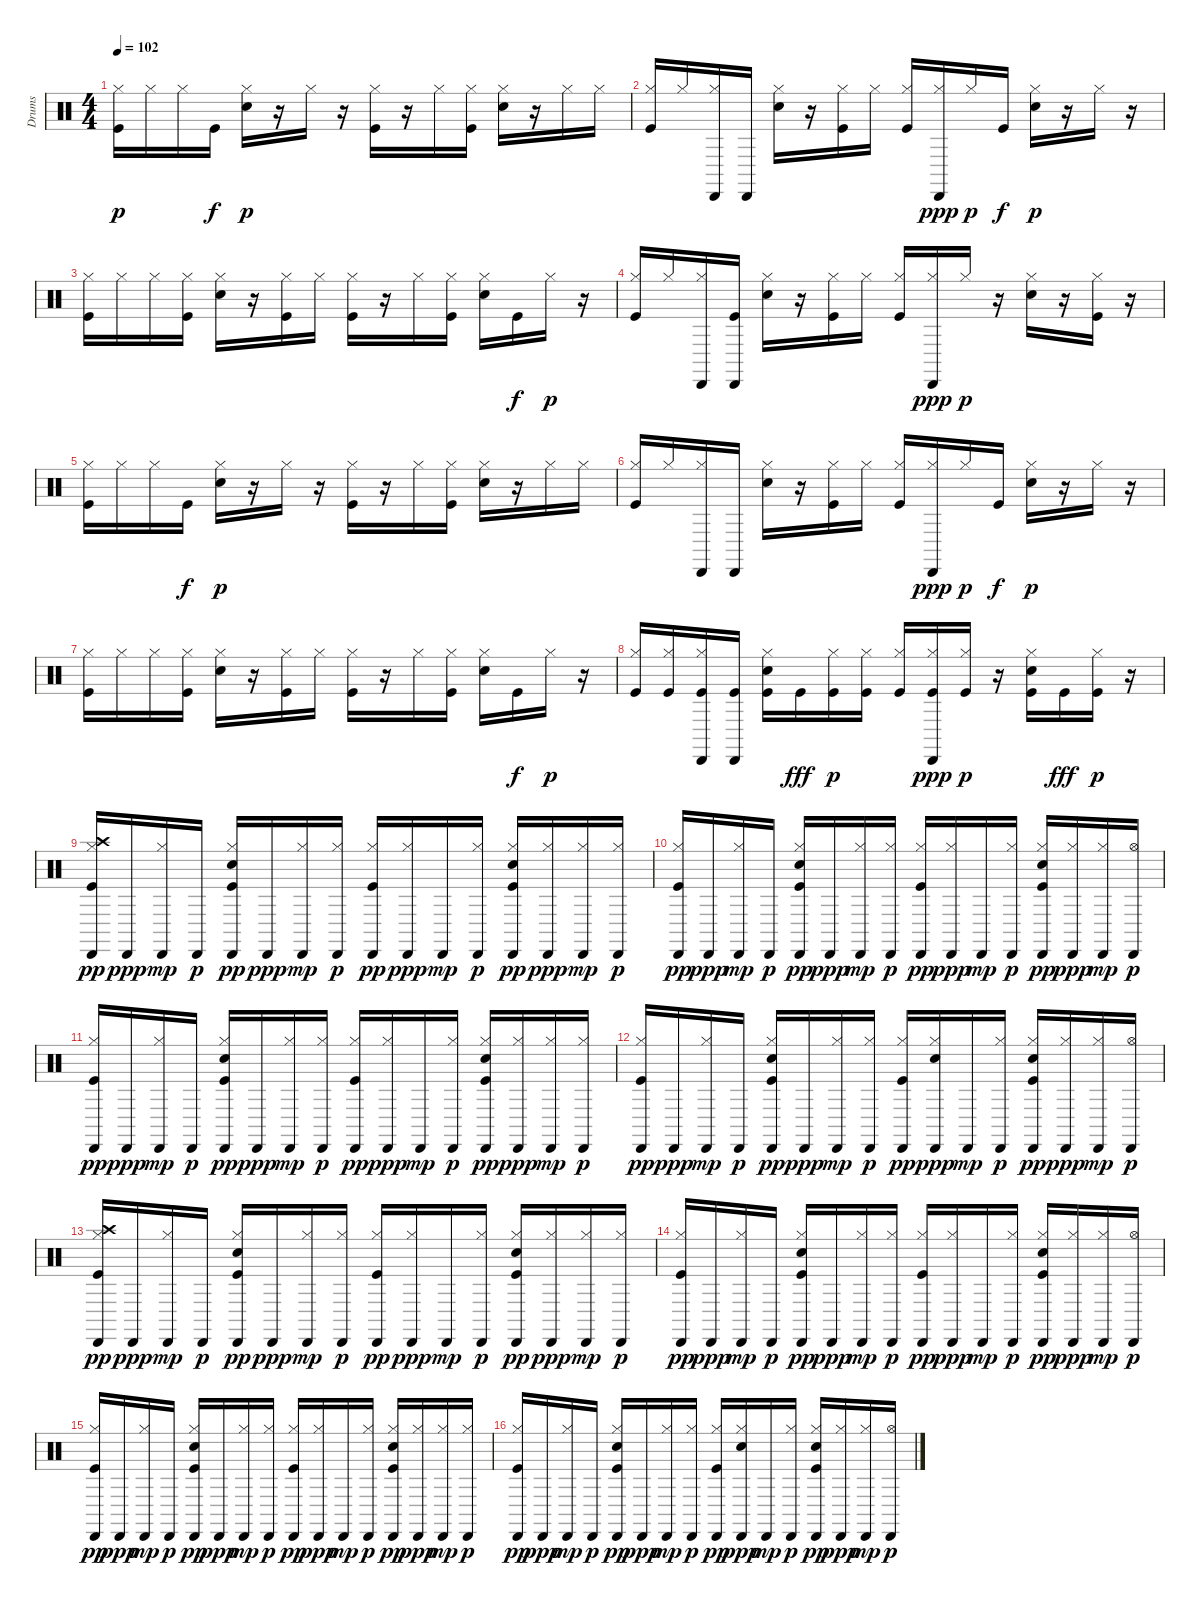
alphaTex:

\track ("Drums" "Drums") {instrument percussion}
\staff {score}
\articulation defaults
\ts (4 4)
\tempo 102
\clef neutral
\ks c
("Kick (hit)" "Hi-Hat (closed)").16{dy p} "Hi-Hat (closed)".16 "Hi-Hat (closed)".16 "Kick (hit)".16{dy f} ("Snare (hit) 2" "Hi-Hat (closed)").16{dy p} r.16 "Hi-Hat (closed)".16 r.16 ("Kick (hit)" "Hi-Hat (closed)").16 r.16 "Hi-Hat (closed)".16 ("Kick (hit)" "Hi-Hat (closed)").16 ("Snare (hit) 2" "Hi-Hat (closed)").16 r.16 "Hi-Hat (closed)".16 "Hi-Hat (closed)".16 |
("Kick (hit)" "Hi-Hat (closed)").16 "Hi-Hat (closed)".16 ("Hi-Hat (closed)" "Cabasa (hit)").16 "Cabasa (hit)".16 ("Snare (hit) 2" "Hi-Hat (closed)").16 r.16 ("Kick (hit)" "Hi-Hat (closed)").16 "Hi-Hat (closed)".16 ("Kick (hit)" "Hi-Hat (closed)").16 ("Hi-Hat (closed)" "Cabasa (hit)").16{dy ppp} "Hi-Hat (closed)".16{dy p} "Kick (hit)".16{dy f} ("Snare (hit) 2" "Hi-Hat (closed)").16{dy p} r.16 "Hi-Hat (closed)".16 r.16 |
("Kick (hit)" "Hi-Hat (closed)").16 "Hi-Hat (closed)".16 "Hi-Hat (closed)".16 ("Kick (hit)" "Hi-Hat (closed)").16 ("Snare (hit) 2" "Hi-Hat (closed)").16 r.16 ("Kick (hit)" "Hi-Hat (closed)").16 "Hi-Hat (closed)".16 ("Kick (hit)" "Hi-Hat (closed)").16 r.16 "Hi-Hat (closed)".16 ("Kick (hit)" "Hi-Hat (closed)").16 ("Snare (hit) 2" "Hi-Hat (closed)").16 "Kick (hit)".16{dy f} "Hi-Hat (closed)".16{dy p} r.16 |
("Kick (hit)" "Hi-Hat (closed)").16 "Hi-Hat (closed)".16 ("Hi-Hat (closed)" "Cabasa (hit)").16 ("Kick (hit)" "Cabasa (hit)").16 ("Snare (hit) 2" "Hi-Hat (closed)").16 r.16 ("Kick (hit)" "Hi-Hat (closed)").16 "Hi-Hat (closed)".16 ("Kick (hit)" "Hi-Hat (closed)").16 ("Hi-Hat (closed)" "Cabasa (hit)").16{dy ppp} "Hi-Hat (closed)".16{dy p} r.16 ("Snare (hit) 2" "Hi-Hat (closed)").16 r.16 ("Kick (hit)" "Hi-Hat (closed)").16 r.16 |
("Kick (hit)" "Hi-Hat (closed)").16 "Hi-Hat (closed)".16 "Hi-Hat (closed)".16 "Kick (hit)".16{dy f} ("Snare (hit) 2" "Hi-Hat (closed)").16{dy p} r.16 "Hi-Hat (closed)".16 r.16 ("Kick (hit)" "Hi-Hat (closed)").16 r.16 "Hi-Hat (closed)".16 ("Kick (hit)" "Hi-Hat (closed)").16 ("Snare (hit) 2" "Hi-Hat (closed)").16 r.16 "Hi-Hat (closed)".16 "Hi-Hat (closed)".16 |
("Kick (hit)" "Hi-Hat (closed)").16 "Hi-Hat (closed)".16 ("Hi-Hat (closed)" "Cabasa (hit)").16 "Cabasa (hit)".16 ("Snare (hit) 2" "Hi-Hat (closed)").16 r.16 ("Kick (hit)" "Hi-Hat (closed)").16 "Hi-Hat (closed)".16 ("Kick (hit)" "Hi-Hat (closed)").16 ("Hi-Hat (closed)" "Cabasa (hit)").16{dy ppp} "Hi-Hat (closed)".16{dy p} "Kick (hit)".16{dy f} ("Snare (hit) 2" "Hi-Hat (closed)").16{dy p} r.16 "Hi-Hat (closed)".16 r.16 |
("Kick (hit)" "Hi-Hat (closed)").16 "Hi-Hat (closed)".16 "Hi-Hat (closed)".16 ("Kick (hit)" "Hi-Hat (closed)").16 ("Snare (hit) 2" "Hi-Hat (closed)").16 r.16 ("Kick (hit)" "Hi-Hat (closed)").16 "Hi-Hat (closed)".16 ("Kick (hit)" "Hi-Hat (closed)").16 r.16 "Hi-Hat (closed)".16 ("Kick (hit)" "Hi-Hat (closed)").16 ("Snare (hit) 2" "Hi-Hat (closed)").16 "Kick (hit)".16{dy f} "Hi-Hat (closed)".16{dy p} r.16 |
("Kick (hit)" "Hi-Hat (closed)").16 ("Kick (hit)" "Hi-Hat (closed)").16 ("Kick (hit)" "Hi-Hat (closed)" "Cabasa (hit)").16 ("Kick (hit)" "Cabasa (hit)").16 ("Kick (hit)" "Snare (hit) 2" "Hi-Hat (closed)").16 "Kick (hit)".16{dy fff} ("Kick (hit)" "Hi-Hat (closed)").16{dy p} ("Kick (hit)" "Hi-Hat (closed)").16 ("Kick (hit)" "Hi-Hat (closed)").16 ("Kick (hit)" "Hi-Hat (closed)" "Cabasa (hit)").16{dy ppp} ("Kick (hit)" "Hi-Hat (closed)").16{dy p} r.16 ("Kick (hit)" "Snare (hit) 2" "Hi-Hat (closed)").16 "Kick (hit)".16{dy fff} ("Kick (hit)" "Hi-Hat (closed)").16{dy p} r.16 |
("Kick (hit)" "Hi-Hat (closed)" "Crash high (hit)" "Cabasa (hit)").16{dy pp} "Cabasa (hit)".16{dy ppp} ("Hi-Hat (closed)" "Cabasa (hit)").16{dy mp} "Cabasa (hit)".16{dy p} ("Kick (hit)" "Snare (hit) 2" "Hi-Hat (closed)" "Cabasa (hit)").16{dy pp} "Cabasa (hit)".16{dy ppp} ("Hi-Hat (closed)" "Cabasa (hit)").16{dy mp} ("Hi-Hat (closed)" "Cabasa (hit)").16{dy p} ("Kick (hit)" "Hi-Hat (closed)" "Cabasa (hit)").16{dy pp} ("Hi-Hat (closed)" "Cabasa (hit)").16{dy ppp} "Cabasa (hit)".16{dy mp} ("Hi-Hat (closed)" "Cabasa (hit)").16{dy p} ("Kick (hit)" "Snare (hit) 2" "Hi-Hat (closed)" "Cabasa (hit)").16{dy pp} ("Hi-Hat (closed)" "Cabasa (hit)").16{dy ppp} ("Hi-Hat (closed)" "Cabasa (hit)").16{dy mp} ("Hi-Hat (closed)" "Cabasa (hit)").16{dy p} |
("Kick (hit)" "Hi-Hat (closed)" "Cabasa (hit)").16{dy pp} "Cabasa (hit)".16{dy ppp} ("Hi-Hat (closed)" "Cabasa (hit)").16{dy mp} "Cabasa (hit)".16{dy p} ("Kick (hit)" "Snare (hit) 2" "Hi-Hat (closed)" "Cabasa (hit)").16{dy pp} "Cabasa (hit)".16{dy ppp} ("Hi-Hat (closed)" "Cabasa (hit)").16{dy mp} ("Hi-Hat (closed)" "Cabasa (hit)").16{dy p} ("Kick (hit)" "Hi-Hat (closed)" "Cabasa (hit)").16{dy pp} ("Hi-Hat (closed)" "Cabasa (hit)").16{dy ppp} "Cabasa (hit)".16{dy mp} ("Hi-Hat (closed)" "Cabasa (hit)").16{dy p} ("Kick (hit)" "Snare (hit) 2" "Hi-Hat (closed)" "Cabasa (hit)").16{dy pp} ("Hi-Hat (closed)" "Cabasa (hit)").16{dy ppp} ("Hi-Hat (closed)" "Cabasa (hit)").16{dy mp} ("Hi-Hat (open)" "Cabasa (hit)").16{dy p} |
("Kick (hit)" "Hi-Hat (closed)" "Cabasa (hit)").16{dy pp} "Cabasa (hit)".16{dy ppp} ("Hi-Hat (closed)" "Cabasa (hit)").16{dy mp} "Cabasa (hit)".16{dy p} ("Kick (hit)" "Snare (hit) 2" "Hi-Hat (closed)" "Cabasa (hit)").16{dy pp} "Cabasa (hit)".16{dy ppp} ("Hi-Hat (closed)" "Cabasa (hit)").16{dy mp} ("Hi-Hat (closed)" "Cabasa (hit)").16{dy p} ("Kick (hit)" "Hi-Hat (closed)" "Cabasa (hit)").16{dy pp} ("Hi-Hat (closed)" "Cabasa (hit)").16{dy ppp} "Cabasa (hit)".16{dy mp} ("Hi-Hat (closed)" "Cabasa (hit)").16{dy p} ("Kick (hit)" "Snare (hit) 2" "Hi-Hat (closed)" "Cabasa (hit)").16{dy pp} ("Hi-Hat (closed)" "Cabasa (hit)").16{dy ppp} ("Hi-Hat (closed)" "Cabasa (hit)").16{dy mp} ("Hi-Hat (closed)" "Cabasa (hit)").16{dy p} |
("Kick (hit)" "Hi-Hat (closed)" "Cabasa (hit)").16{dy pp} "Cabasa (hit)".16{dy ppp} ("Hi-Hat (closed)" "Cabasa (hit)").16{dy mp} "Cabasa (hit)".16{dy p} ("Kick (hit)" "Snare (hit) 2" "Hi-Hat (closed)" "Cabasa (hit)").16{dy pp} "Cabasa (hit)".16{dy ppp} ("Hi-Hat (closed)" "Cabasa (hit)").16{dy mp} ("Hi-Hat (closed)" "Cabasa (hit)").16{dy p} ("Kick (hit)" "Hi-Hat (closed)" "Cabasa (hit)").16{dy pp} ("Snare (hit) 2" "Hi-Hat (closed)" "Cabasa (hit)").16{dy ppp} "Cabasa (hit)".16{dy mp} ("Hi-Hat (closed)" "Cabasa (hit)").16{dy p} ("Kick (hit)" "Snare (hit) 2" "Hi-Hat (closed)" "Cabasa (hit)").16{dy pp} ("Hi-Hat (closed)" "Cabasa (hit)").16{dy ppp} ("Hi-Hat (closed)" "Cabasa (hit)").16{dy mp} ("Hi-Hat (open)" "Cabasa (hit)").16{dy p} |
("Kick (hit)" "Hi-Hat (closed)" "Crash high (hit)" "Cabasa (hit)").16{dy pp} "Cabasa (hit)".16{dy ppp} ("Hi-Hat (closed)" "Cabasa (hit)").16{dy mp} "Cabasa (hit)".16{dy p} ("Kick (hit)" "Snare (hit) 2" "Hi-Hat (closed)" "Cabasa (hit)").16{dy pp} "Cabasa (hit)".16{dy ppp} ("Hi-Hat (closed)" "Cabasa (hit)").16{dy mp} ("Hi-Hat (closed)" "Cabasa (hit)").16{dy p} ("Kick (hit)" "Hi-Hat (closed)" "Cabasa (hit)").16{dy pp} ("Hi-Hat (closed)" "Cabasa (hit)").16{dy ppp} "Cabasa (hit)".16{dy mp} ("Hi-Hat (closed)" "Cabasa (hit)").16{dy p} ("Kick (hit)" "Snare (hit) 2" "Hi-Hat (closed)" "Cabasa (hit)").16{dy pp} ("Hi-Hat (closed)" "Cabasa (hit)").16{dy ppp} ("Hi-Hat (closed)" "Cabasa (hit)").16{dy mp} ("Hi-Hat (closed)" "Cabasa (hit)").16{dy p} |
("Kick (hit)" "Hi-Hat (closed)" "Cabasa (hit)").16{dy pp} "Cabasa (hit)".16{dy ppp} ("Hi-Hat (closed)" "Cabasa (hit)").16{dy mp} "Cabasa (hit)".16{dy p} ("Kick (hit)" "Snare (hit) 2" "Hi-Hat (closed)" "Cabasa (hit)").16{dy pp} "Cabasa (hit)".16{dy ppp} ("Hi-Hat (closed)" "Cabasa (hit)").16{dy mp} ("Hi-Hat (closed)" "Cabasa (hit)").16{dy p} ("Kick (hit)" "Hi-Hat (closed)" "Cabasa (hit)").16{dy pp} ("Hi-Hat (closed)" "Cabasa (hit)").16{dy ppp} "Cabasa (hit)".16{dy mp} ("Hi-Hat (closed)" "Cabasa (hit)").16{dy p} ("Kick (hit)" "Snare (hit) 2" "Hi-Hat (closed)" "Cabasa (hit)").16{dy pp} ("Hi-Hat (closed)" "Cabasa (hit)").16{dy ppp} ("Hi-Hat (closed)" "Cabasa (hit)").16{dy mp} ("Hi-Hat (open)" "Cabasa (hit)").16{dy p} |
("Kick (hit)" "Hi-Hat (closed)" "Cabasa (hit)").16{dy pp} "Cabasa (hit)".16{dy ppp} ("Hi-Hat (closed)" "Cabasa (hit)").16{dy mp} "Cabasa (hit)".16{dy p} ("Kick (hit)" "Snare (hit) 2" "Hi-Hat (closed)" "Cabasa (hit)").16{dy pp} "Cabasa (hit)".16{dy ppp} ("Hi-Hat (closed)" "Cabasa (hit)").16{dy mp} ("Hi-Hat (closed)" "Cabasa (hit)").16{dy p} ("Kick (hit)" "Hi-Hat (closed)" "Cabasa (hit)").16{dy pp} ("Hi-Hat (closed)" "Cabasa (hit)").16{dy ppp} "Cabasa (hit)".16{dy mp} ("Hi-Hat (closed)" "Cabasa (hit)").16{dy p} ("Kick (hit)" "Snare (hit) 2" "Hi-Hat (closed)" "Cabasa (hit)").16{dy pp} ("Hi-Hat (closed)" "Cabasa (hit)").16{dy ppp} ("Hi-Hat (closed)" "Cabasa (hit)").16{dy mp} ("Hi-Hat (closed)" "Cabasa (hit)").16{dy p} |
("Kick (hit)" "Hi-Hat (closed)" "Cabasa (hit)").16{dy pp} "Cabasa (hit)".16{dy ppp} ("Hi-Hat (closed)" "Cabasa (hit)").16{dy mp} "Cabasa (hit)".16{dy p} ("Kick (hit)" "Snare (hit) 2" "Hi-Hat (closed)" "Cabasa (hit)").16{dy pp} "Cabasa (hit)".16{dy ppp} ("Hi-Hat (closed)" "Cabasa (hit)").16{dy mp} ("Hi-Hat (closed)" "Cabasa (hit)").16{dy p} ("Kick (hit)" "Hi-Hat (closed)" "Cabasa (hit)").16{dy pp} ("Snare (hit) 2" "Hi-Hat (closed)" "Cabasa (hit)").16{dy ppp} "Cabasa (hit)".16{dy mp} ("Hi-Hat (closed)" "Cabasa (hit)").16{dy p} ("Kick (hit)" "Snare (hit) 2" "Hi-Hat (closed)" "Cabasa (hit)").16{dy pp} ("Hi-Hat (closed)" "Cabasa (hit)").16{dy ppp} ("Hi-Hat (closed)" "Cabasa (hit)").16{dy mp} ("Hi-Hat (open)" "Cabasa (hit)").16{dy p}
